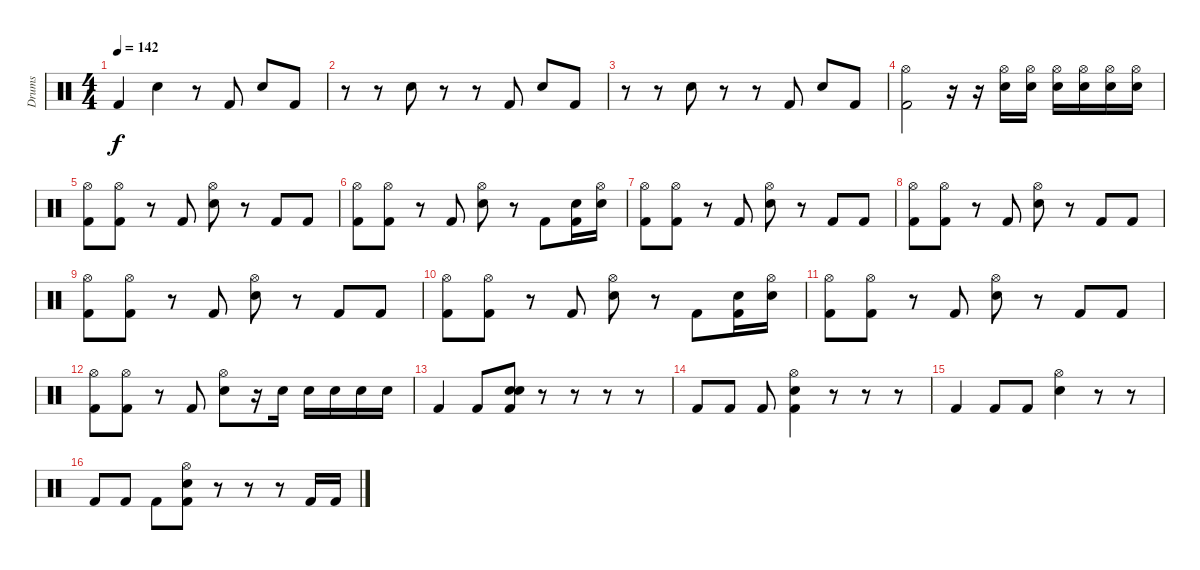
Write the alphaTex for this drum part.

\track ("Drums" "Drums") {instrument percussion}
\staff {score}
\articulation defaults
\ts (4 4)
\tempo 142
\clef neutral
\ks c "Kick (hit) 2".4{dy f} "Snare (hit) 2".4
r.8 "Kick (hit) 2".8 "Snare (hit) 2".8 "Kick (hit) 2".8 |
r.8 r.8 "Snare (hit) 2".8 r.8 r.8 "Kick (hit) 2".8 "Snare (hit) 2".8 "Kick (hit) 2".8 |
r.8 r.8 "Snare (hit) 2".8 r.8 r.8 "Kick (hit) 2".8 "Snare (hit) 2".8 "Kick (hit) 2".8 |
("Hi-Hat (open)" "Kick (hit) 2").2 r.16 r.16 ("Hi-Hat (open)" "Snare (hit) 2").16 ("Hi-Hat (open)" "Snare (hit) 2").16 ("Hi-Hat (open)" "Snare (hit) 2").16 ("Hi-Hat (open)" "Snare (hit) 2").16 ("Hi-Hat (open)" "Snare (hit) 2").16 ("Hi-Hat (open)" "Snare (hit) 2").16 |
("Hi-Hat (open)" "Kick (hit) 2").8 ("Hi-Hat (open)" "Kick (hit) 2").8 r.8 "Kick (hit) 2".8 ("Hi-Hat (open)" "Snare (hit) 2").8 r.8 "Kick (hit) 2".8 "Kick (hit) 2".8 |
("Hi-Hat (open)" "Kick (hit) 2").8 ("Hi-Hat (open)" "Kick (hit) 2").8 r.8 "Kick (hit) 2".8 ("Hi-Hat (open)" "Snare (hit) 2").8 r.8 "Kick (hit) 2".8 ("Snare (hit) 2" "Kick (hit) 2").16 ("Hi-Hat (open)" "Snare (hit) 2").16 |
("Hi-Hat (open)" "Kick (hit) 2").8 ("Hi-Hat (open)" "Kick (hit) 2").8 r.8 "Kick (hit) 2".8 ("Hi-Hat (open)" "Snare (hit) 2").8 r.8 "Kick (hit) 2".8 "Kick (hit) 2".8 |
("Hi-Hat (open)" "Kick (hit) 2").8 ("Hi-Hat (open)" "Kick (hit) 2").8 r.8 "Kick (hit) 2".8 ("Hi-Hat (open)" "Snare (hit) 2").8 r.8 "Kick (hit) 2".8 "Kick (hit) 2".8 |
("Hi-Hat (open)" "Kick (hit) 2").8 ("Hi-Hat (open)" "Kick (hit) 2").8 r.8 "Kick (hit) 2".8 ("Hi-Hat (open)" "Snare (hit) 2").8 r.8 "Kick (hit) 2".8 "Kick (hit) 2".8 |
("Hi-Hat (open)" "Kick (hit) 2").8 ("Hi-Hat (open)" "Kick (hit) 2").8 r.8 "Kick (hit) 2".8 ("Hi-Hat (open)" "Snare (hit) 2").8 r.8 "Kick (hit) 2".8 ("Snare (hit) 2" "Kick (hit) 2").16 ("Hi-Hat (open)" "Snare (hit) 2").16 |
("Hi-Hat (open)" "Kick (hit) 2").8 ("Hi-Hat (open)" "Kick (hit) 2").8 r.8 "Kick (hit) 2".8 ("Hi-Hat (open)" "Snare (hit) 2").8 r.8 "Kick (hit) 2".8 "Kick (hit) 2".8 |
("Hi-Hat (open)" "Kick (hit) 2").8 ("Hi-Hat (open)" "Kick (hit) 2").8 r.8 "Kick (hit) 2".8 ("Hi-Hat (open)" "Snare (hit) 2").8 r.16 "Snare (hit) 2".16 "Snare (hit) 2".16 "Snare (hit) 2".16 "Snare (hit) 2".16 "Snare (hit) 2".16 |
"Kick (hit) 2".4 "Kick (hit) 2".8 ("Hand Clap (hit)" "Snare (hit) 2" "Kick (hit) 2").8 r.8 r.8 r.8 r.8 |
"Kick (hit) 2".8 "Kick (hit) 2".8 "Kick (hit) 2".8 ("Hi-Hat (open)" "Snare (hit) 2" "Kick (hit) 2").4 r.8 r.8 r.8 |
"Kick (hit) 2".4 "Kick (hit) 2".8 "Kick (hit) 2".8 ("Hi-Hat (open)" "Snare (hit) 2").4 r.8 r.8 |
"Kick (hit) 2".8 "Kick (hit) 2".8 "Kick (hit) 2".8 ("Hi-Hat (open)" "Snare (hit) 2" "Kick (hit) 2").8 r.8 r.8 r.8 "Kick (hit) 2".16 "Kick (hit) 2".16
